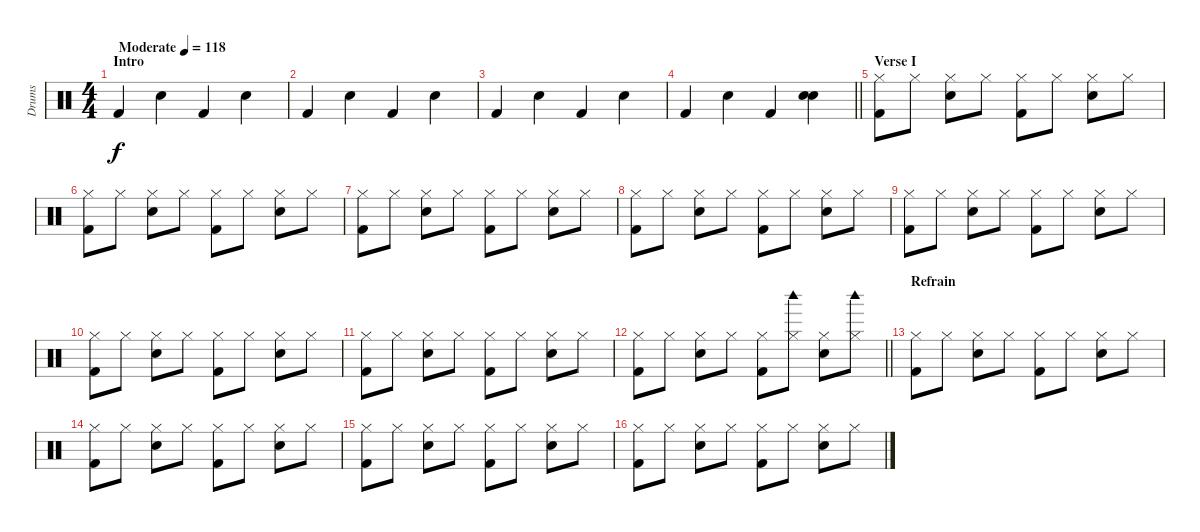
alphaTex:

\track ("Drums" "Drums") {instrument percussion}
\staff {score}
\articulation defaults
\ts (4 4)
\section ("" "Intro")
\tempo (118 "Moderate")
\clef neutral
\ks c "Kick (hit) 2".4{dy f} "Snare (hit) 2".4 "Kick (hit) 2".4 "Snare (hit) 2".4
|
"Kick (hit) 2".4 "Snare (hit) 2".4 "Kick (hit) 2".4 "Snare (hit) 2".4 |
"Kick (hit) 2".4 "Snare (hit) 2".4 "Kick (hit) 2".4 "Snare (hit) 2".4 |
\barLineRight lightlight "Kick (hit) 2".4 "Snare (hit) 2".4 "Kick (hit) 2".4
("Hand Clap (hit)" "Snare (hit) 2").4 |
\section ("" "Verse I")
("Hi-Hat (closed)" "Kick (hit) 2").8 "Hi-Hat (closed)".8 ("Hi-Hat (closed)" "Snare (hit) 2").8 "Hi-Hat (closed)".8 ("Hi-Hat (closed)" "Kick (hit) 2").8 "Hi-Hat (closed)".8 ("Hi-Hat (closed)" "Snare (hit) 2").8 "Hi-Hat (closed)".8 |
("Hi-Hat (closed)" "Kick (hit) 2").8 "Hi-Hat (closed)".8 ("Hi-Hat (closed)" "Snare (hit) 2").8 "Hi-Hat (closed)".8 ("Hi-Hat (closed)" "Kick (hit) 2").8 "Hi-Hat (closed)".8 ("Hi-Hat (closed)" "Snare (hit) 2").8 "Hi-Hat (closed)".8 |
("Hi-Hat (closed)" "Kick (hit) 2").8 "Hi-Hat (closed)".8 ("Hi-Hat (closed)" "Snare (hit) 2").8 "Hi-Hat (closed)".8 ("Hi-Hat (closed)" "Kick (hit) 2").8 "Hi-Hat (closed)".8 ("Hi-Hat (closed)" "Snare (hit) 2").8 "Hi-Hat (closed)".8 |
("Hi-Hat (closed)" "Kick (hit) 2").8 "Hi-Hat (closed)".8 ("Hi-Hat (closed)" "Snare (hit) 2").8 "Hi-Hat (closed)".8 ("Hi-Hat (closed)" "Kick (hit) 2").8 "Hi-Hat (closed)".8 ("Hi-Hat (closed)" "Snare (hit) 2").8 "Hi-Hat (closed)".8 |
("Hi-Hat (closed)" "Kick (hit) 2").8 "Hi-Hat (closed)".8 ("Hi-Hat (closed)" "Snare (hit) 2").8 "Hi-Hat (closed)".8 ("Hi-Hat (closed)" "Kick (hit) 2").8 "Hi-Hat (closed)".8 ("Hi-Hat (closed)" "Snare (hit) 2").8 "Hi-Hat (closed)".8 |
("Hi-Hat (closed)" "Kick (hit) 2").8 "Hi-Hat (closed)".8 ("Hi-Hat (closed)" "Snare (hit) 2").8 "Hi-Hat (closed)".8 ("Hi-Hat (closed)" "Kick (hit) 2").8 "Hi-Hat (closed)".8 ("Hi-Hat (closed)" "Snare (hit) 2").8 "Hi-Hat (closed)".8 |
("Hi-Hat (closed)" "Kick (hit) 2").8 "Hi-Hat (closed)".8 ("Hi-Hat (closed)" "Snare (hit) 2").8 "Hi-Hat (closed)".8 ("Hi-Hat (closed)" "Kick (hit) 2").8 "Hi-Hat (closed)".8 ("Hi-Hat (closed)" "Snare (hit) 2").8 "Hi-Hat (closed)".8 |
\barLineRight lightlight
("Hi-Hat (closed)" "Kick (hit) 2").8 "Hi-Hat (closed)".8 ("Hi-Hat (closed)" "Snare (hit) 2").8 "Hi-Hat (closed)".8 ("Hi-Hat (closed)" "Kick (hit) 2").8 ("Hi-Hat (closed)" "Woodblock high (hit)").8 ("Hi-Hat (closed)" "Snare (hit) 2").8 ("Hi-Hat (closed)" "Woodblock high (hit)").8 |
\section ("" "Refrain")
("Hi-Hat (closed)" "Kick (hit) 2").8 "Hi-Hat (closed)".8 ("Hi-Hat (closed)" "Snare (hit) 2").8 "Hi-Hat (closed)".8 ("Hi-Hat (closed)" "Kick (hit) 2").8 "Hi-Hat (closed)".8 ("Hi-Hat (closed)" "Snare (hit) 2").8 "Hi-Hat (closed)".8 |
("Hi-Hat (closed)" "Kick (hit) 2").8 "Hi-Hat (closed)".8 ("Hi-Hat (closed)" "Snare (hit) 2").8 "Hi-Hat (closed)".8 ("Hi-Hat (closed)" "Kick (hit) 2").8 "Hi-Hat (closed)".8 ("Hi-Hat (closed)" "Snare (hit) 2").8 "Hi-Hat (closed)".8 |
("Hi-Hat (closed)" "Kick (hit) 2").8 "Hi-Hat (closed)".8 ("Hi-Hat (closed)" "Snare (hit) 2").8 "Hi-Hat (closed)".8 ("Hi-Hat (closed)" "Kick (hit) 2").8 "Hi-Hat (closed)".8 ("Hi-Hat (closed)" "Snare (hit) 2").8 "Hi-Hat (closed)".8 |
("Hi-Hat (closed)" "Kick (hit) 2").8 "Hi-Hat (closed)".8 ("Hi-Hat (closed)" "Snare (hit) 2").8 "Hi-Hat (closed)".8 ("Hi-Hat (closed)" "Kick (hit) 2").8 "Hi-Hat (closed)".8 ("Hi-Hat (closed)" "Snare (hit) 2").8 "Hi-Hat (closed)".8
